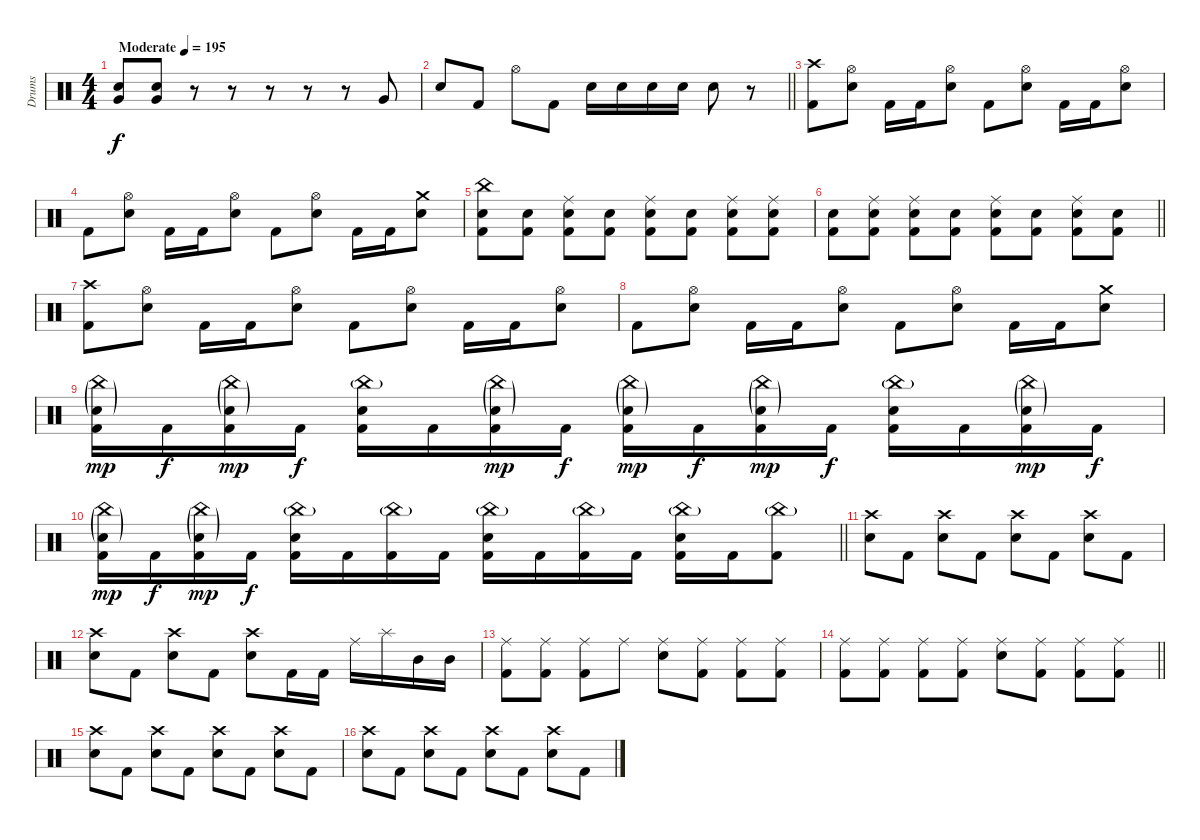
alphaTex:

\track ("Drums" "Drums") {instrument percussion}
\staff {score}
\articulation defaults
\ts (4 4)
\tempo (195 "Moderate")
\clef neutral
\ks c
("Electric Snare (hit)" "Very Low Tom (hit)").8{dy f} ("Electric Snare (hit)" "Very Low Tom (hit)").8 r.8 r.8 r.8 r.8 r.8 "Very Low Tom (hit)".8 |
\barLineRight lightlight "Electric Snare (hit)".8 "Kick (hit) 2".8 "Hi-Hat (open)".8 "Kick (hit) 2".8 "Electric Snare (hit)".16 "Electric Snare (hit)".16 "Electric Snare (hit)".16 "Electric Snare (hit)".16 "Electric Snare (hit)".8
r.8 |
("Crash high (hit)" "Kick (hit) 2").8 ("Hi-Hat (open)" "Electric Snare (hit)").8 "Kick (hit) 2".16 "Kick (hit) 2".16 ("Hi-Hat (open)" "Electric Snare (hit)").8 "Kick (hit) 2".8 ("Hi-Hat (open)" "Electric Snare (hit)").8 "Kick (hit) 2".16 "Kick (hit) 2".16 ("Hi-Hat (open)" "Electric Snare (hit)").8 |
"Kick (hit) 2".8 ("Hi-Hat (open)" "Electric Snare (hit)").8 "Kick (hit) 2".16 "Kick (hit) 2".16 ("Hi-Hat (open)" "Electric Snare (hit)").8 "Kick (hit) 2".8 ("Hi-Hat (open)" "Electric Snare (hit)").8 "Kick (hit) 2".16 "Kick (hit) 2".16 ("Crash medium (hit)" "Electric Snare (hit)").8 |
("China (hit)" "Electric Snare (hit)" "Kick (hit) 2").8 ("Electric Snare (hit)" "Kick (hit) 2").8 ("Ride (middle)" "Electric Snare (hit)" "Kick (hit) 2").8 ("Electric Snare (hit)" "Kick (hit) 2").8 ("Ride (middle)" "Electric Snare (hit)" "Kick (hit) 2").8 ("Electric Snare (hit)" "Kick (hit) 2").8 ("Ride (middle)" "Electric Snare (hit)" "Kick (hit) 2").8 ("Ride (middle)" "Electric Snare (hit)" "Kick (hit) 2").8 |
\barLineRight lightlight
("Electric Snare (hit)" "Kick (hit) 2").8 ("Ride (middle)" "Electric Snare (hit)" "Kick (hit) 2").8 ("Ride (middle)" "Electric Snare (hit)" "Kick (hit) 2").8 ("Electric Snare (hit)" "Kick (hit) 2").8 ("Ride (middle)" "Electric Snare (hit)" "Kick (hit) 2").8 ("Electric Snare (hit)" "Kick (hit) 2").8 ("Ride (middle)" "Electric Snare (hit)" "Kick (hit) 2").8 ("Electric Snare (hit)" "Kick (hit) 2").8 |
("Crash high (hit)" "Kick (hit) 2").8 ("Hi-Hat (open)" "Electric Snare (hit)").8 "Kick (hit) 2".16 "Kick (hit) 2".16 ("Hi-Hat (open)" "Electric Snare (hit)").8 "Kick (hit) 2".8 ("Hi-Hat (open)" "Electric Snare (hit)").8 "Kick (hit) 2".16 "Kick (hit) 2".16 ("Hi-Hat (open)" "Electric Snare (hit)").8 |
"Kick (hit) 2".8 ("Hi-Hat (open)" "Electric Snare (hit)").8 "Kick (hit) 2".16 "Kick (hit) 2".16 ("Hi-Hat (open)" "Electric Snare (hit)").8 "Kick (hit) 2".8 ("Hi-Hat (open)" "Electric Snare (hit)").8 "Kick (hit) 2".16 "Kick (hit) 2".16 ("Crash medium (hit)" "Electric Snare (hit)").8 |
("China (hit)"{g} "Electric Snare (hit)"{g} "Kick (hit) 2").16{dy mp} "Kick (hit) 2".16{dy f} ("China (hit)"{g} "Electric Snare (hit)"{g} "Kick (hit) 2").16{dy mp} "Kick (hit) 2".16{dy f} ("China (hit)"{g} "Electric Snare (hit)" "Kick (hit) 2").16 "Kick (hit) 2".16 ("China (hit)"{g} "Electric Snare (hit)"{g} "Kick (hit) 2").16{dy mp} "Kick (hit) 2".16{dy f} ("China (hit)"{g} "Electric Snare (hit)"{g} "Kick (hit) 2").16{dy mp} "Kick (hit) 2".16{dy f} ("China (hit)"{g} "Electric Snare (hit)"{g} "Kick (hit) 2").16{dy mp} "Kick (hit) 2".16{dy f} ("China (hit)"{g} "Electric Snare (hit)" "Kick (hit) 2").16 "Kick (hit) 2".16 ("China (hit)"{g} "Electric Snare (hit)"{g} "Kick (hit) 2").16{dy mp} "Kick (hit) 2".16{dy f} |
\barLineRight lightlight
("China (hit)"{g} "Electric Snare (hit)"{g} "Kick (hit) 2").16{dy mp} "Kick (hit) 2".16{dy f} ("China (hit)"{g} "Electric Snare (hit)"{g} "Kick (hit) 2").16{dy mp} "Kick (hit) 2".16{dy f} ("China (hit)"{g} "Electric Snare (hit)" "Kick (hit) 2").16 "Kick (hit) 2".16 ("China (hit)"{g} "Kick (hit) 2").16 "Kick (hit) 2".16 ("China (hit)"{g} "Electric Snare (hit)" "Kick (hit) 2").16 "Kick (hit) 2".16 ("China (hit)"{g} "Kick (hit) 2").16 "Kick (hit) 2".16 ("China (hit)"{g} "Electric Snare (hit)" "Kick (hit) 2").16 "Kick (hit) 2".16 ("China (hit)"{g} "Kick (hit) 2").8 |
("Crash high (hit)" "Electric Snare (hit)").8 "Kick (hit) 2".8 ("Crash high (hit)" "Electric Snare (hit)").8 "Kick (hit) 2".8 ("Crash high (hit)" "Electric Snare (hit)").8 "Kick (hit) 2".8 ("Crash high (hit)" "Electric Snare (hit)").8 "Kick (hit) 2".8 |
("Crash high (hit)" "Electric Snare (hit)").8 "Kick (hit) 2".8 ("Crash high (hit)" "Electric Snare (hit)").8 "Kick (hit) 2".8 ("Crash high (hit)" "Electric Snare (hit)").8 "Kick (hit) 2".16 "Kick (hit) 2".16 "Ride (middle)".16 "Splash (hit)".16 "Mid Tom (hit)".16 "Mid Tom (hit)".16 |
("Ride (middle)" "Kick (hit) 2").8 ("Ride (middle)" "Kick (hit) 2").8 ("Ride (middle)" "Kick (hit) 2").8 "Ride (middle)".8 ("Ride (middle)" "Electric Snare (hit)").8 ("Ride (middle)" "Kick (hit) 2").8 ("Ride (middle)" "Kick (hit) 2").8 ("Ride (middle)" "Kick (hit) 2").8 |
\barLineRight lightlight
("Ride (middle)" "Kick (hit) 2").8 ("Ride (middle)" "Kick (hit) 2").8 ("Ride (middle)" "Kick (hit) 2").8 ("Ride (middle)" "Kick (hit) 2").8 ("Ride (middle)" "Electric Snare (hit)").8 ("Ride (middle)" "Kick (hit) 2").8 ("Ride (middle)" "Kick (hit) 2").8 ("Ride (middle)" "Kick (hit) 2").8 |
("Crash high (hit)" "Electric Snare (hit)").8 "Kick (hit) 2".8 ("Crash high (hit)" "Electric Snare (hit)").8 "Kick (hit) 2".8 ("Crash high (hit)" "Electric Snare (hit)").8 "Kick (hit) 2".8 ("Crash high (hit)" "Electric Snare (hit)").8 "Kick (hit) 2".8 |
("Crash high (hit)" "Electric Snare (hit)").8 "Kick (hit) 2".8 ("Crash high (hit)" "Electric Snare (hit)").8 "Kick (hit) 2".8 ("Crash high (hit)" "Electric Snare (hit)").8 "Kick (hit) 2".8 ("Crash high (hit)" "Electric Snare (hit)").8 "Kick (hit) 2".8
